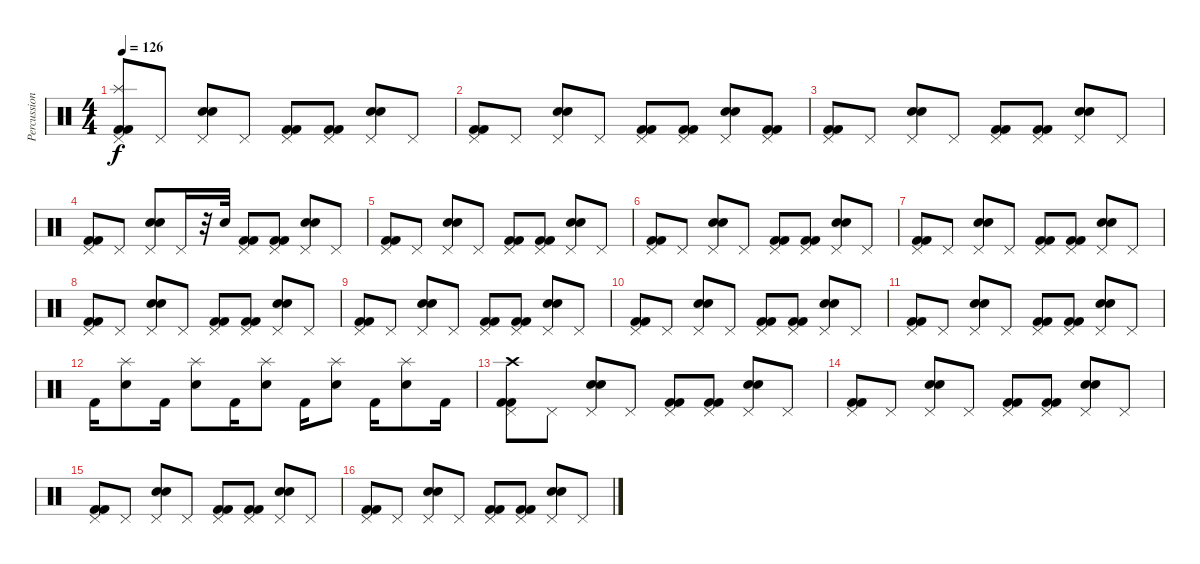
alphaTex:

\track ("Percussion" "Percussion") {instrument percussion}
\staff {score}
\articulation defaults
\ts (4 4)
\tempo 126
\clef neutral
\ks c
("Pedal Hi-Hat (hit)" "Splash (hit)" "Kick (hit) 2" "Kick (hit) 2").8{dy f} "Pedal Hi-Hat (hit)".8 ("Pedal Hi-Hat (hit)" "Electric Snare (hit)" "Snare (hit) 2").8 "Pedal Hi-Hat (hit)".8 ("Pedal Hi-Hat (hit)" "Kick (hit) 2" "Kick (hit) 2").8 ("Pedal Hi-Hat (hit)" "Kick (hit) 2" "Kick (hit) 2").8 ("Pedal Hi-Hat (hit)" "Electric Snare (hit)" "Snare (hit) 2").8 "Pedal Hi-Hat (hit)".8 |
("Pedal Hi-Hat (hit)" "Kick (hit) 2" "Kick (hit) 2").8 "Pedal Hi-Hat (hit)".8 ("Pedal Hi-Hat (hit)" "Electric Snare (hit)" "Snare (hit) 2").8 "Pedal Hi-Hat (hit)".8 ("Pedal Hi-Hat (hit)" "Kick (hit) 2" "Kick (hit) 2").8 ("Pedal Hi-Hat (hit)" "Kick (hit) 2" "Kick (hit) 2").8 ("Pedal Hi-Hat (hit)" "Electric Snare (hit)" "Snare (hit) 2").8 ("Pedal Hi-Hat (hit)" "Kick (hit) 2" "Kick (hit) 2").8 |
("Pedal Hi-Hat (hit)" "Kick (hit) 2" "Kick (hit) 2").8 "Pedal Hi-Hat (hit)".8 ("Pedal Hi-Hat (hit)" "Electric Snare (hit)" "Snare (hit) 2").8 "Pedal Hi-Hat (hit)".8 ("Pedal Hi-Hat (hit)" "Kick (hit) 2" "Kick (hit) 2").8 ("Pedal Hi-Hat (hit)" "Kick (hit) 2" "Kick (hit) 2").8 ("Pedal Hi-Hat (hit)" "Electric Snare (hit)" "Snare (hit) 2").8 "Pedal Hi-Hat (hit)".8 |
("Pedal Hi-Hat (hit)" "Kick (hit) 2" "Kick (hit) 2").8 "Pedal Hi-Hat (hit)".8 ("Pedal Hi-Hat (hit)" "Electric Snare (hit)" "Snare (hit) 2").8 "Pedal Hi-Hat (hit)".16 r.32 "Electric Snare (hit)".32 ("Pedal Hi-Hat (hit)" "Kick (hit) 2" "Kick (hit) 2").8 ("Pedal Hi-Hat (hit)" "Kick (hit) 2" "Kick (hit) 2").8 ("Pedal Hi-Hat (hit)" "Electric Snare (hit)" "Snare (hit) 2").8 "Pedal Hi-Hat (hit)".8 |
("Pedal Hi-Hat (hit)" "Kick (hit) 2" "Kick (hit) 2").8 "Pedal Hi-Hat (hit)".8 ("Pedal Hi-Hat (hit)" "Electric Snare (hit)" "Snare (hit) 2").8 "Pedal Hi-Hat (hit)".8 ("Pedal Hi-Hat (hit)" "Kick (hit) 2" "Kick (hit) 2").8 ("Pedal Hi-Hat (hit)" "Kick (hit) 2" "Kick (hit) 2").8 ("Pedal Hi-Hat (hit)" "Electric Snare (hit)" "Snare (hit) 2").8 "Pedal Hi-Hat (hit)".8 |
("Pedal Hi-Hat (hit)" "Kick (hit) 2" "Kick (hit) 2").8 "Pedal Hi-Hat (hit)".8 ("Pedal Hi-Hat (hit)" "Electric Snare (hit)" "Snare (hit) 2").8 "Pedal Hi-Hat (hit)".8 ("Pedal Hi-Hat (hit)" "Kick (hit) 2" "Kick (hit) 2").8 ("Pedal Hi-Hat (hit)" "Kick (hit) 2" "Kick (hit) 2").8 ("Pedal Hi-Hat (hit)" "Electric Snare (hit)" "Snare (hit) 2").8 "Pedal Hi-Hat (hit)".8 |
("Pedal Hi-Hat (hit)" "Kick (hit) 2" "Kick (hit) 2").8 "Pedal Hi-Hat (hit)".8 ("Pedal Hi-Hat (hit)" "Electric Snare (hit)" "Snare (hit) 2").8 "Pedal Hi-Hat (hit)".8 ("Pedal Hi-Hat (hit)" "Kick (hit) 2" "Kick (hit) 2").8 ("Pedal Hi-Hat (hit)" "Kick (hit) 2" "Kick (hit) 2").8 ("Pedal Hi-Hat (hit)" "Electric Snare (hit)" "Snare (hit) 2").8 "Pedal Hi-Hat (hit)".8 |
("Pedal Hi-Hat (hit)" "Kick (hit) 2" "Kick (hit) 2").8 "Pedal Hi-Hat (hit)".8 ("Pedal Hi-Hat (hit)" "Electric Snare (hit)" "Snare (hit) 2").8 "Pedal Hi-Hat (hit)".8 ("Pedal Hi-Hat (hit)" "Kick (hit) 2" "Kick (hit) 2").8 ("Pedal Hi-Hat (hit)" "Kick (hit) 2" "Kick (hit) 2").8 ("Pedal Hi-Hat (hit)" "Electric Snare (hit)" "Snare (hit) 2").8 "Pedal Hi-Hat (hit)".8 |
("Pedal Hi-Hat (hit)" "Kick (hit) 2" "Kick (hit) 2").8 "Pedal Hi-Hat (hit)".8 ("Pedal Hi-Hat (hit)" "Electric Snare (hit)" "Snare (hit) 2").8 "Pedal Hi-Hat (hit)".8 ("Pedal Hi-Hat (hit)" "Kick (hit) 2" "Kick (hit) 2").8 ("Pedal Hi-Hat (hit)" "Kick (hit) 2" "Kick (hit) 2").8 ("Pedal Hi-Hat (hit)" "Electric Snare (hit)" "Snare (hit) 2").8 "Pedal Hi-Hat (hit)".8 |
("Pedal Hi-Hat (hit)" "Kick (hit) 2" "Kick (hit) 2").8 "Pedal Hi-Hat (hit)".8 ("Pedal Hi-Hat (hit)" "Electric Snare (hit)" "Snare (hit) 2").8 "Pedal Hi-Hat (hit)".8 ("Pedal Hi-Hat (hit)" "Kick (hit) 2" "Kick (hit) 2").8 ("Pedal Hi-Hat (hit)" "Kick (hit) 2" "Kick (hit) 2").8 ("Pedal Hi-Hat (hit)" "Electric Snare (hit)" "Snare (hit) 2").8 "Pedal Hi-Hat (hit)".8 |
("Pedal Hi-Hat (hit)" "Kick (hit) 2" "Kick (hit) 2").8 "Pedal Hi-Hat (hit)".8 ("Pedal Hi-Hat (hit)" "Electric Snare (hit)" "Snare (hit) 2").8 "Pedal Hi-Hat (hit)".8 ("Pedal Hi-Hat (hit)" "Kick (hit) 2" "Kick (hit) 2").8 ("Pedal Hi-Hat (hit)" "Kick (hit) 2" "Kick (hit) 2").8 ("Pedal Hi-Hat (hit)" "Electric Snare (hit)" "Snare (hit) 2").8 "Pedal Hi-Hat (hit)".8 |
"Kick (hit) 2".16 ("Splash (hit)" "Electric Snare (hit)").8 "Kick (hit) 2".16 ("Splash (hit)" "Electric Snare (hit)").8 "Kick (hit) 2".16 ("Splash (hit)" "Electric Snare (hit)").8 "Kick (hit) 2".16 ("Splash (hit)" "Electric Snare (hit)").8 "Kick (hit) 2".16 ("Splash (hit)" "Electric Snare (hit)").8 "Kick (hit) 2".16 |
("Pedal Hi-Hat (hit)" "Crash high (hit)" "Kick (hit) 2" "Kick (hit) 2").8 "Pedal Hi-Hat (hit)".8 ("Pedal Hi-Hat (hit)" "Electric Snare (hit)" "Snare (hit) 2").8 "Pedal Hi-Hat (hit)".8 ("Pedal Hi-Hat (hit)" "Kick (hit) 2" "Kick (hit) 2").8 ("Pedal Hi-Hat (hit)" "Kick (hit) 2" "Kick (hit) 2").8 ("Pedal Hi-Hat (hit)" "Electric Snare (hit)" "Snare (hit) 2").8 "Pedal Hi-Hat (hit)".8 |
("Pedal Hi-Hat (hit)" "Kick (hit) 2" "Kick (hit) 2").8 "Pedal Hi-Hat (hit)".8 ("Pedal Hi-Hat (hit)" "Electric Snare (hit)" "Snare (hit) 2").8 "Pedal Hi-Hat (hit)".8 ("Pedal Hi-Hat (hit)" "Kick (hit) 2" "Kick (hit) 2").8 ("Pedal Hi-Hat (hit)" "Kick (hit) 2" "Kick (hit) 2").8 ("Pedal Hi-Hat (hit)" "Electric Snare (hit)" "Snare (hit) 2").8 "Pedal Hi-Hat (hit)".8 |
("Pedal Hi-Hat (hit)" "Kick (hit) 2" "Kick (hit) 2").8 "Pedal Hi-Hat (hit)".8 ("Pedal Hi-Hat (hit)" "Electric Snare (hit)" "Snare (hit) 2").8 "Pedal Hi-Hat (hit)".8 ("Pedal Hi-Hat (hit)" "Kick (hit) 2" "Kick (hit) 2").8 ("Pedal Hi-Hat (hit)" "Kick (hit) 2" "Kick (hit) 2").8 ("Pedal Hi-Hat (hit)" "Electric Snare (hit)" "Snare (hit) 2").8 "Pedal Hi-Hat (hit)".8 |
("Pedal Hi-Hat (hit)" "Kick (hit) 2" "Kick (hit) 2").8 "Pedal Hi-Hat (hit)".8 ("Pedal Hi-Hat (hit)" "Electric Snare (hit)" "Snare (hit) 2").8 "Pedal Hi-Hat (hit)".8 ("Pedal Hi-Hat (hit)" "Kick (hit) 2" "Kick (hit) 2").8 ("Pedal Hi-Hat (hit)" "Kick (hit) 2" "Kick (hit) 2").8 ("Pedal Hi-Hat (hit)" "Electric Snare (hit)" "Snare (hit) 2").8 "Pedal Hi-Hat (hit)".8
